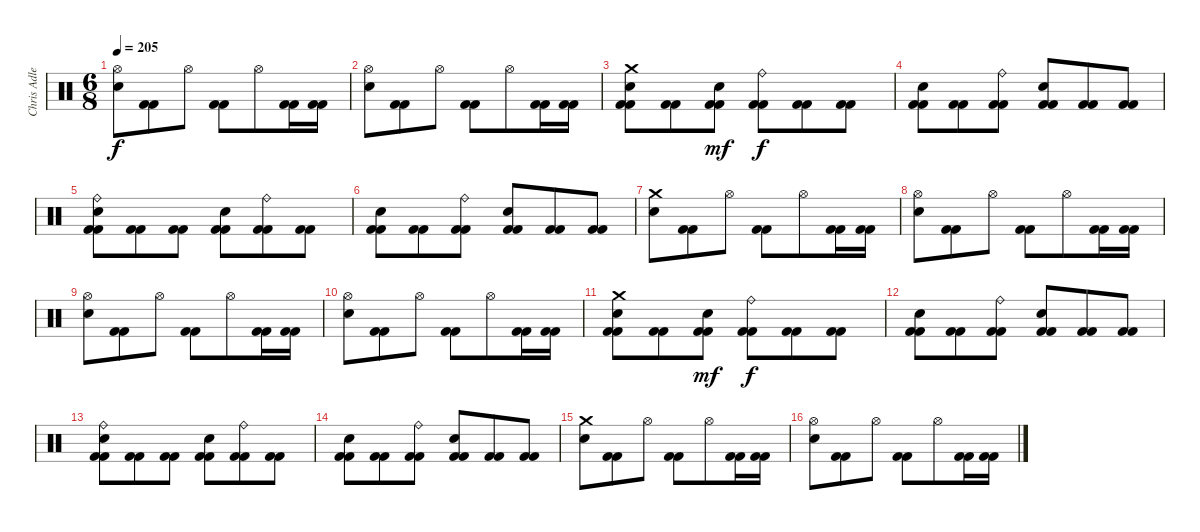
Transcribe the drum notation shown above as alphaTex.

\track ("Chris Adler" "Chris Adle") {instrument percussion}
\staff {score}
\articulation defaults
\ts (6 8)
\tempo 205
\clef neutral
\ks c
("Hi-Hat (open)" "Electric Snare (hit)").8{dy f} ("Kick (hit) 2" "Kick (hit) 2").8 "Hi-Hat (open)".8 ("Kick (hit) 2" "Kick (hit) 2").8 "Hi-Hat (open)".8 ("Kick (hit) 2" "Kick (hit) 2").16 ("Kick (hit) 2" "Kick (hit) 2").16 |
("Hi-Hat (open)" "Electric Snare (hit)").8 ("Kick (hit) 2" "Kick (hit) 2").8 "Hi-Hat (open)".8 ("Kick (hit) 2" "Kick (hit) 2").8 "Hi-Hat (open)".8 ("Kick (hit) 2" "Kick (hit) 2").16 ("Kick (hit) 2" "Kick (hit) 2").16 |
("Crash medium (hit)" "Electric Snare (hit)" "Kick (hit) 2" "Kick (hit) 2").8 ("Kick (hit) 2" "Kick (hit) 2").8 ("Electric Snare (hit)" "Kick (hit) 2" "Kick (hit) 2").8{dy mf} ("Ride (bell)" "Kick (hit) 2" "Kick (hit) 2").8{dy f} ("Kick (hit) 2" "Kick (hit) 2").8 ("Kick (hit) 2" "Kick (hit) 2").8 |
("Electric Snare (hit)" "Kick (hit) 2" "Kick (hit) 2").8 ("Kick (hit) 2" "Kick (hit) 2").8 ("Ride (bell)" "Kick (hit) 2" "Kick (hit) 2").8 ("Electric Snare (hit)" "Kick (hit) 2" "Kick (hit) 2").8 ("Kick (hit) 2" "Kick (hit) 2").8 ("Kick (hit) 2" "Kick (hit) 2").8 |
("Ride (bell)" "Electric Snare (hit)" "Kick (hit) 2" "Kick (hit) 2").8 ("Kick (hit) 2" "Kick (hit) 2").8 ("Kick (hit) 2" "Kick (hit) 2").8 ("Electric Snare (hit)" "Kick (hit) 2" "Kick (hit) 2").8 ("Ride (bell)" "Kick (hit) 2" "Kick (hit) 2").8 ("Kick (hit) 2" "Kick (hit) 2").8 |
("Electric Snare (hit)" "Kick (hit) 2" "Kick (hit) 2").8 ("Kick (hit) 2" "Kick (hit) 2").8 ("Ride (bell)" "Kick (hit) 2" "Kick (hit) 2").8 ("Electric Snare (hit)" "Kick (hit) 2" "Kick (hit) 2").8 ("Kick (hit) 2" "Kick (hit) 2").8 ("Kick (hit) 2" "Kick (hit) 2").8 |
("Crash medium (hit)" "Electric Snare (hit)").8 ("Kick (hit) 2" "Kick (hit) 2").8 "Hi-Hat (open)".8 ("Kick (hit) 2" "Kick (hit) 2").8 "Hi-Hat (open)".8 ("Kick (hit) 2" "Kick (hit) 2").16 ("Kick (hit) 2" "Kick (hit) 2").16 |
("Hi-Hat (open)" "Electric Snare (hit)").8 ("Kick (hit) 2" "Kick (hit) 2").8 "Hi-Hat (open)".8 ("Kick (hit) 2" "Kick (hit) 2").8 "Hi-Hat (open)".8 ("Kick (hit) 2" "Kick (hit) 2").16 ("Kick (hit) 2" "Kick (hit) 2").16 |
("Hi-Hat (open)" "Electric Snare (hit)").8 ("Kick (hit) 2" "Kick (hit) 2").8 "Hi-Hat (open)".8 ("Kick (hit) 2" "Kick (hit) 2").8 "Hi-Hat (open)".8 ("Kick (hit) 2" "Kick (hit) 2").16 ("Kick (hit) 2" "Kick (hit) 2").16 |
("Hi-Hat (open)" "Electric Snare (hit)").8 ("Kick (hit) 2" "Kick (hit) 2").8 "Hi-Hat (open)".8 ("Kick (hit) 2" "Kick (hit) 2").8 "Hi-Hat (open)".8 ("Kick (hit) 2" "Kick (hit) 2").16 ("Kick (hit) 2" "Kick (hit) 2").16 |
("Crash medium (hit)" "Electric Snare (hit)" "Kick (hit) 2" "Kick (hit) 2").8 ("Kick (hit) 2" "Kick (hit) 2").8 ("Electric Snare (hit)" "Kick (hit) 2" "Kick (hit) 2").8{dy mf} ("Ride (bell)" "Kick (hit) 2" "Kick (hit) 2").8{dy f} ("Kick (hit) 2" "Kick (hit) 2").8 ("Kick (hit) 2" "Kick (hit) 2").8 |
("Electric Snare (hit)" "Kick (hit) 2" "Kick (hit) 2").8 ("Kick (hit) 2" "Kick (hit) 2").8 ("Ride (bell)" "Kick (hit) 2" "Kick (hit) 2").8 ("Electric Snare (hit)" "Kick (hit) 2" "Kick (hit) 2").8 ("Kick (hit) 2" "Kick (hit) 2").8 ("Kick (hit) 2" "Kick (hit) 2").8 |
("Ride (bell)" "Electric Snare (hit)" "Kick (hit) 2" "Kick (hit) 2").8 ("Kick (hit) 2" "Kick (hit) 2").8 ("Kick (hit) 2" "Kick (hit) 2").8 ("Electric Snare (hit)" "Kick (hit) 2" "Kick (hit) 2").8 ("Ride (bell)" "Kick (hit) 2" "Kick (hit) 2").8 ("Kick (hit) 2" "Kick (hit) 2").8 |
("Electric Snare (hit)" "Kick (hit) 2" "Kick (hit) 2").8 ("Kick (hit) 2" "Kick (hit) 2").8 ("Ride (bell)" "Kick (hit) 2" "Kick (hit) 2").8 ("Electric Snare (hit)" "Kick (hit) 2" "Kick (hit) 2").8 ("Kick (hit) 2" "Kick (hit) 2").8 ("Kick (hit) 2" "Kick (hit) 2").8 |
("Crash medium (hit)" "Electric Snare (hit)").8 ("Kick (hit) 2" "Kick (hit) 2").8 "Hi-Hat (open)".8 ("Kick (hit) 2" "Kick (hit) 2").8 "Hi-Hat (open)".8 ("Kick (hit) 2" "Kick (hit) 2").16 ("Kick (hit) 2" "Kick (hit) 2").16 |
("Hi-Hat (open)" "Electric Snare (hit)").8 ("Kick (hit) 2" "Kick (hit) 2").8 "Hi-Hat (open)".8 ("Kick (hit) 2" "Kick (hit) 2").8 "Hi-Hat (open)".8 ("Kick (hit) 2" "Kick (hit) 2").16 ("Kick (hit) 2" "Kick (hit) 2").16
